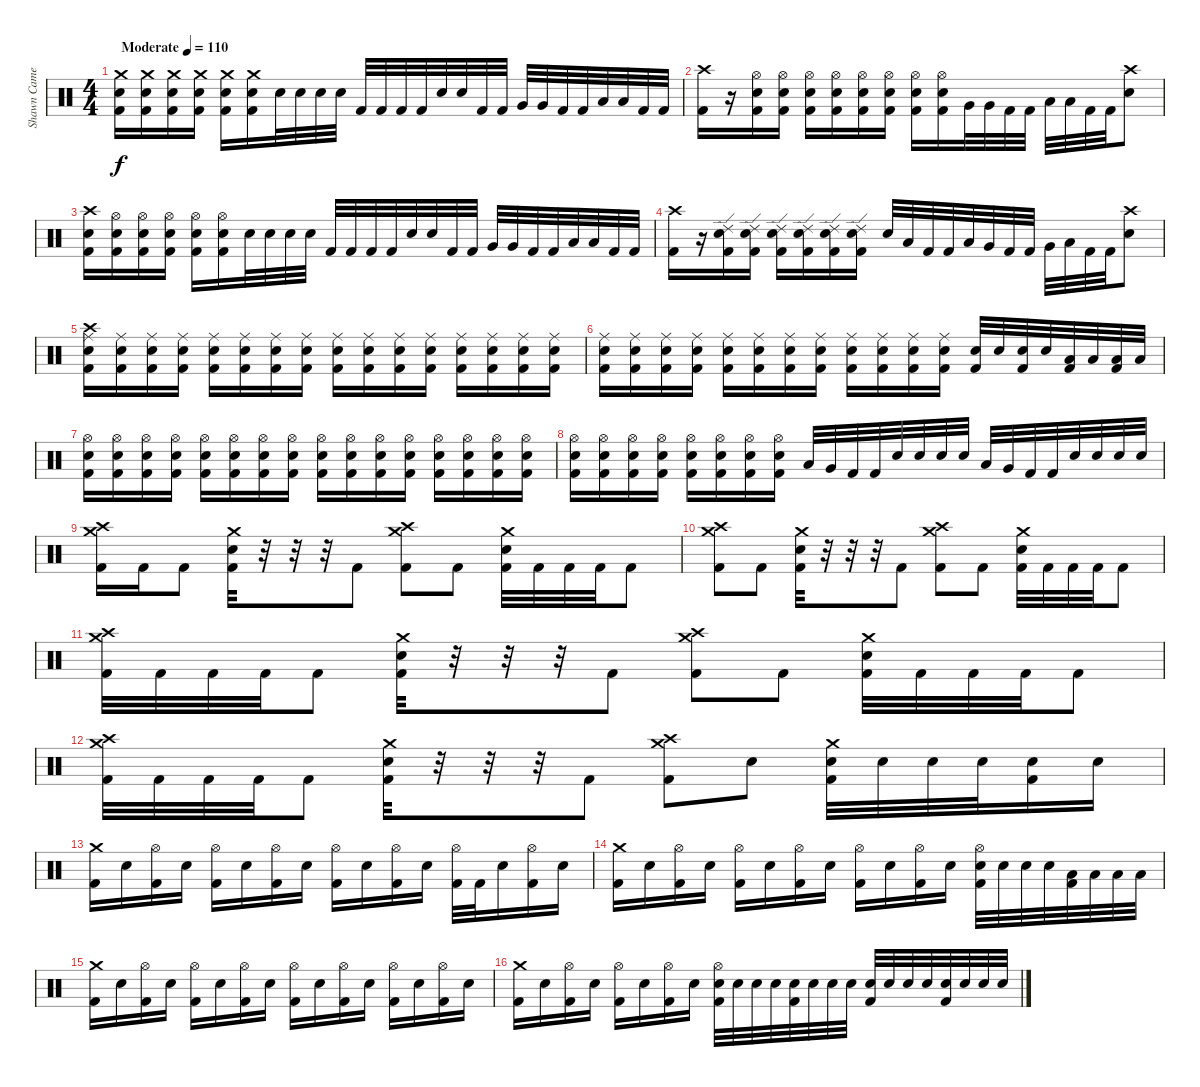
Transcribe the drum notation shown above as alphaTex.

\track ("Shawn Cameron" "Shawn Came") {instrument percussion}
\staff {score}
\articulation defaults
\ts (4 4)
\tempo (110 "Moderate")
\clef neutral
\ks c
("Crash medium (hit)" "Electric Snare (hit)" "Kick (hit) 2").16{dy f} ("Crash medium (hit)" "Electric Snare (hit)" "Kick (hit) 2").16 ("Crash medium (hit)" "Electric Snare (hit)" "Kick (hit) 2").16 ("Crash medium (hit)" "Electric Snare (hit)" "Kick (hit) 2").16 ("Crash medium (hit)" "Electric Snare (hit)" "Kick (hit) 2").16 ("Crash medium (hit)" "Electric Snare (hit)" "Kick (hit) 2").16 "Electric Snare (hit)".32 "Electric Snare (hit)".32 "Electric Snare (hit)".32 "Electric Snare (hit)".32 "Kick (hit) 2".32 "Kick (hit) 2".32 "Kick (hit) 2".32 "Kick (hit) 2".32 "Electric Snare (hit)".32 "Electric Snare (hit)".32 "Kick (hit) 2".32 "Kick (hit) 2".32 "Very Low Tom (hit)".32 "Very Low Tom (hit)".32 "Kick (hit) 2".32 "Kick (hit) 2".32 "Low Floor Tom (hit)".32 "Low Floor Tom (hit)".32 "Kick (hit) 2".32 "Kick (hit) 2".32 |
("Crash high (hit)" "Kick (hit) 2").16 r.16 ("Hi-Hat (open)" "Electric Snare (hit)" "Kick (hit) 2").16 ("Hi-Hat (open)" "Electric Snare (hit)" "Kick (hit) 2").16 ("Hi-Hat (open)" "Electric Snare (hit)" "Kick (hit) 2").16 ("Hi-Hat (open)" "Electric Snare (hit)" "Kick (hit) 2").16 ("Hi-Hat (open)" "Electric Snare (hit)" "Kick (hit) 2").16 ("Hi-Hat (open)" "Electric Snare (hit)" "Kick (hit) 2").16 ("Hi-Hat (open)" "Electric Snare (hit)" "Kick (hit) 2").16 ("Hi-Hat (open)" "Electric Snare (hit)" "Kick (hit) 2").16 "Very Low Tom (hit)".32 "Very Low Tom (hit)".32 "Kick (hit) 2".32 "Kick (hit) 2".32 "Low Floor Tom (hit)".32 "Low Floor Tom (hit)".32 "Kick (hit) 2".32 "Kick (hit) 2".32 ("Crash high (hit)" "Snare (hit) 2").8 |
("Crash high (hit)" "Electric Snare (hit)" "Kick (hit) 2").16 ("Hi-Hat (open)" "Electric Snare (hit)" "Kick (hit) 2").16 ("Hi-Hat (open)" "Electric Snare (hit)" "Kick (hit) 2").16 ("Hi-Hat (open)" "Electric Snare (hit)" "Kick (hit) 2").16 ("Hi-Hat (open)" "Electric Snare (hit)" "Kick (hit) 2").16 ("Hi-Hat (open)" "Electric Snare (hit)" "Kick (hit) 2").16 "Electric Snare (hit)".32 "Electric Snare (hit)".32 "Electric Snare (hit)".32 "Electric Snare (hit)".32 "Kick (hit) 2".32 "Kick (hit) 2".32 "Kick (hit) 2".32 "Kick (hit) 2".32 "Electric Snare (hit)".32 "Electric Snare (hit)".32 "Kick (hit) 2".32 "Kick (hit) 2".32 "Very Low Tom (hit)".32 "Very Low Tom (hit)".32 "Kick (hit) 2".32 "Kick (hit) 2".32 "Low Floor Tom (hit)".32 "Low Floor Tom (hit)".32 "Kick (hit) 2".32 "Kick (hit) 2".32 |
("Crash high (hit)" "Kick (hit) 2").16 r.16 ("Ride (edge) 2" "Electric Snare (hit)" "Kick (hit) 2").16 ("Ride (edge) 2" "Electric Snare (hit)" "Kick (hit) 2").16 ("Ride (edge) 2" "Electric Snare (hit)" "Kick (hit) 2").16 ("Ride (edge) 2" "Electric Snare (hit)" "Kick (hit) 2").16 ("Ride (edge) 2" "Electric Snare (hit)" "Kick (hit) 2").16 ("Ride (edge) 2" "Electric Snare (hit)" "Kick (hit) 2").16 "Electric Snare (hit)".32 "Low Tom (hit)".32 "Kick (hit) 2".32 "Kick (hit) 2".32 "Low Tom (hit)".32 "Very Low Tom (hit)".32 "Kick (hit) 2".32 "Kick (hit) 2".32 "Very Low Tom (hit)".32 "Low Floor Tom (hit)".32 "Kick (hit) 2".32 "Kick (hit) 2".32 ("Crash high (hit)" "Snare (hit) 2").8 |
("Crash high (hit)" "Ride (middle)" "Electric Snare (hit)" "Kick (hit) 2").16 ("Ride (middle)" "Electric Snare (hit)" "Kick (hit) 2").16 ("Ride (middle)" "Electric Snare (hit)" "Kick (hit) 2").16 ("Ride (middle)" "Electric Snare (hit)" "Kick (hit) 2").16 ("Ride (middle)" "Electric Snare (hit)" "Kick (hit) 2").16 ("Ride (middle)" "Electric Snare (hit)" "Kick (hit) 2").16 ("Ride (middle)" "Electric Snare (hit)" "Kick (hit) 2").16 ("Ride (middle)" "Electric Snare (hit)" "Kick (hit) 2").16 ("Ride (middle)" "Electric Snare (hit)" "Kick (hit) 2").16 ("Ride (middle)" "Electric Snare (hit)" "Kick (hit) 2").16 ("Ride (middle)" "Electric Snare (hit)" "Kick (hit) 2").16 ("Ride (middle)" "Electric Snare (hit)" "Kick (hit) 2").16 ("Ride (middle)" "Electric Snare (hit)" "Kick (hit) 2").16 ("Ride (middle)" "Electric Snare (hit)" "Kick (hit) 2").16 ("Ride (middle)" "Electric Snare (hit)" "Kick (hit) 2").16 ("Ride (middle)" "Electric Snare (hit)" "Kick (hit) 2").16 |
("Ride (middle)" "Electric Snare (hit)" "Kick (hit) 2").16 ("Ride (middle)" "Electric Snare (hit)" "Kick (hit) 2").16 ("Ride (middle)" "Electric Snare (hit)" "Kick (hit) 2").16 ("Ride (middle)" "Electric Snare (hit)" "Kick (hit) 2").16 ("Ride (middle)" "Electric Snare (hit)" "Kick (hit) 2").16 ("Ride (middle)" "Electric Snare (hit)" "Kick (hit) 2").16 ("Ride (middle)" "Electric Snare (hit)" "Kick (hit) 2").16 ("Ride (middle)" "Electric Snare (hit)" "Kick (hit) 2").16 ("Ride (middle)" "Electric Snare (hit)" "Kick (hit) 2").16 ("Ride (middle)" "Electric Snare (hit)" "Kick (hit) 2").16 ("Ride (middle)" "Electric Snare (hit)" "Kick (hit) 2").16 ("Ride (middle)" "Electric Snare (hit)" "Kick (hit) 2").16 ("Electric Snare (hit)" "Kick (hit) 2").32 "Electric Snare (hit)".32 ("Electric Snare (hit)" "Kick (hit) 2").32 "Electric Snare (hit)".32 ("Low Tom (hit)" "Kick (hit) 2").32 "Low Tom (hit)".32 ("Low Tom (hit)" "Kick (hit) 2").32 "Low Tom (hit)".32 |
("Hi-Hat (open)" "Electric Snare (hit)" "Kick (hit) 2").16 ("Hi-Hat (open)" "Electric Snare (hit)" "Kick (hit) 2").16 ("Hi-Hat (open)" "Electric Snare (hit)" "Kick (hit) 2").16 ("Hi-Hat (open)" "Electric Snare (hit)" "Kick (hit) 2").16 ("Hi-Hat (open)" "Electric Snare (hit)" "Kick (hit) 2").16 ("Hi-Hat (open)" "Electric Snare (hit)" "Kick (hit) 2").16 ("Hi-Hat (open)" "Electric Snare (hit)" "Kick (hit) 2").16 ("Hi-Hat (open)" "Electric Snare (hit)" "Kick (hit) 2").16 ("Hi-Hat (open)" "Electric Snare (hit)" "Kick (hit) 2").16 ("Hi-Hat (open)" "Electric Snare (hit)" "Kick (hit) 2").16 ("Hi-Hat (open)" "Electric Snare (hit)" "Kick (hit) 2").16 ("Hi-Hat (open)" "Electric Snare (hit)" "Kick (hit) 2").16 ("Hi-Hat (open)" "Electric Snare (hit)" "Kick (hit) 2").16 ("Hi-Hat (open)" "Electric Snare (hit)" "Kick (hit) 2").16 ("Hi-Hat (open)" "Electric Snare (hit)" "Kick (hit) 2").16 ("Hi-Hat (open)" "Electric Snare (hit)" "Kick (hit) 2").16 |
("Hi-Hat (open)" "Electric Snare (hit)" "Kick (hit) 2").16 ("Hi-Hat (open)" "Electric Snare (hit)" "Kick (hit) 2").16 ("Hi-Hat (open)" "Electric Snare (hit)" "Kick (hit) 2").16 ("Hi-Hat (open)" "Electric Snare (hit)" "Kick (hit) 2").16 ("Hi-Hat (open)" "Electric Snare (hit)" "Kick (hit) 2").16 ("Hi-Hat (open)" "Electric Snare (hit)" "Kick (hit) 2").16 ("Hi-Hat (open)" "Electric Snare (hit)" "Kick (hit) 2").16 ("Hi-Hat (open)" "Electric Snare (hit)" "Kick (hit) 2").16 "Low Tom (hit)".32 "Very Low Tom (hit)".32 "Kick (hit) 2".32 "Kick (hit) 2".32 "Electric Snare (hit)".32 "Electric Snare (hit)".32 "Electric Snare (hit)".32 "Electric Snare (hit)".32 "Low Tom (hit)".32 "Very Low Tom (hit)".32 "Kick (hit) 2".32 "Kick (hit) 2".32 "Electric Snare (hit)".32 "Electric Snare (hit)".32 "Electric Snare (hit)".32 "Electric Snare (hit)".32 |
("Crash medium (hit)" "Crash high (hit)" "Kick (hit) 2").16 "Kick (hit) 2".16 "Kick (hit) 2".8 ("Crash medium (hit)" "Electric Snare (hit)" "Kick (hit) 2").32 r.32 r.32 r.32 "Kick (hit) 2".8 ("Crash medium (hit)" "Crash high (hit)" "Kick (hit) 2").8 "Kick (hit) 2".8 ("Crash medium (hit)" "Electric Snare (hit)" "Kick (hit) 2").32 "Kick (hit) 2".32 "Kick (hit) 2".32 "Kick (hit) 2".32 "Kick (hit) 2".8 |
("Crash medium (hit)" "Crash high (hit)" "Kick (hit) 2").8 "Kick (hit) 2".8 ("Crash medium (hit)" "Electric Snare (hit)" "Kick (hit) 2").32 r.32 r.32 r.32 "Kick (hit) 2".8 ("Crash medium (hit)" "Crash high (hit)" "Kick (hit) 2").8 "Kick (hit) 2".8 ("Crash medium (hit)" "Electric Snare (hit)" "Kick (hit) 2").32 "Kick (hit) 2".32 "Kick (hit) 2".32 "Kick (hit) 2".32 "Kick (hit) 2".8 |
("Crash medium (hit)" "Crash high (hit)" "Kick (hit) 2").32 "Kick (hit) 2".32 "Kick (hit) 2".32 "Kick (hit) 2".32 "Kick (hit) 2".8 ("Crash medium (hit)" "Electric Snare (hit)" "Kick (hit) 2").32 r.32 r.32 r.32 "Kick (hit) 2".8 ("Crash medium (hit)" "Crash high (hit)" "Kick (hit) 2").8 "Kick (hit) 2".8 ("Crash medium (hit)" "Electric Snare (hit)" "Kick (hit) 2").32 "Kick (hit) 2".32 "Kick (hit) 2".32 "Kick (hit) 2".32 "Kick (hit) 2".8 |
("Crash medium (hit)" "Crash high (hit)" "Kick (hit) 2").32 "Kick (hit) 2".32 "Kick (hit) 2".32 "Kick (hit) 2".32 "Kick (hit) 2".8 ("Crash medium (hit)" "Electric Snare (hit)" "Kick (hit) 2").32 r.32 r.32 r.32 "Kick (hit) 2".8 ("Crash medium (hit)" "Crash high (hit)" "Kick (hit) 2").8 "Electric Snare (hit)".8 ("Crash medium (hit)" "Kick (hit) 2" "Electric Snare (hit)").32 "Electric Snare (hit)".32 "Electric Snare (hit)".32 "Electric Snare (hit)".32 ("Kick (hit) 2" "Electric Snare (hit)").16 "Electric Snare (hit)".16 |
("Crash medium (hit)" "Kick (hit) 2").16 "Electric Snare (hit)".16 ("Hi-Hat (open)" "Kick (hit) 2").16 "Electric Snare (hit)".16 ("Hi-Hat (open)" "Kick (hit) 2").16 "Electric Snare (hit)".16 ("Hi-Hat (open)" "Kick (hit) 2").16 "Electric Snare (hit)".16 ("Hi-Hat (open)" "Kick (hit) 2").16 "Electric Snare (hit)".16 ("Hi-Hat (open)" "Kick (hit) 2").16 "Electric Snare (hit)".16 ("Hi-Hat (open)" "Kick (hit) 2").32 "Kick (hit) 2".32 "Electric Snare (hit)".16 ("Hi-Hat (open)" "Kick (hit) 2").16 "Electric Snare (hit)".16 |
("Crash medium (hit)" "Kick (hit) 2").16 "Electric Snare (hit)".16 ("Hi-Hat (open)" "Kick (hit) 2").16 "Electric Snare (hit)".16 ("Hi-Hat (open)" "Kick (hit) 2").16 "Electric Snare (hit)".16 ("Hi-Hat (open)" "Kick (hit) 2").16 "Electric Snare (hit)".16 ("Hi-Hat (open)" "Kick (hit) 2").16 "Electric Snare (hit)".16 ("Hi-Hat (open)" "Kick (hit) 2").16 "Electric Snare (hit)".16 ("Hi-Hat (open)" "Kick (hit) 2" "Electric Snare (hit)").32 "Electric Snare (hit)".32 "Electric Snare (hit)".32 "Electric Snare (hit)".32 ("Kick (hit) 2" "Low Tom (hit)").32 "Low Tom (hit)".32 "Low Tom (hit)".32 "Low Tom (hit)".32 |
("Crash medium (hit)" "Kick (hit) 2").16 "Electric Snare (hit)".16 ("Hi-Hat (open)" "Kick (hit) 2").16 "Electric Snare (hit)".16 ("Hi-Hat (open)" "Kick (hit) 2").16 "Electric Snare (hit)".16 ("Hi-Hat (open)" "Kick (hit) 2").16 "Electric Snare (hit)".16 ("Hi-Hat (open)" "Kick (hit) 2").16 "Electric Snare (hit)".16 ("Hi-Hat (open)" "Kick (hit) 2").16 "Electric Snare (hit)".16 ("Hi-Hat (open)" "Kick (hit) 2").16 "Electric Snare (hit)".16 ("Hi-Hat (open)" "Kick (hit) 2").16 "Electric Snare (hit)".16 |
("Crash medium (hit)" "Kick (hit) 2").16 "Electric Snare (hit)".16 ("Hi-Hat (open)" "Kick (hit) 2").16 "Electric Snare (hit)".16 ("Hi-Hat (open)" "Kick (hit) 2").16 "Electric Snare (hit)".16 ("Hi-Hat (open)" "Kick (hit) 2").16 "Electric Snare (hit)".16 ("Hi-Hat (open)" "Electric Snare (hit)" "Kick (hit) 2").32 "Electric Snare (hit)".32 "Electric Snare (hit)".32 "Electric Snare (hit)".32 ("Electric Snare (hit)" "Kick (hit) 2").32 "Electric Snare (hit)".32 "Electric Snare (hit)".32 "Electric Snare (hit)".32 ("Electric Snare (hit)" "Kick (hit) 2").32 "Electric Snare (hit)".32 "Electric Snare (hit)".32 "Electric Snare (hit)".32 ("Electric Snare (hit)" "Kick (hit) 2").32 "Electric Snare (hit)".32 "Electric Snare (hit)".32 "Electric Snare (hit)".32
